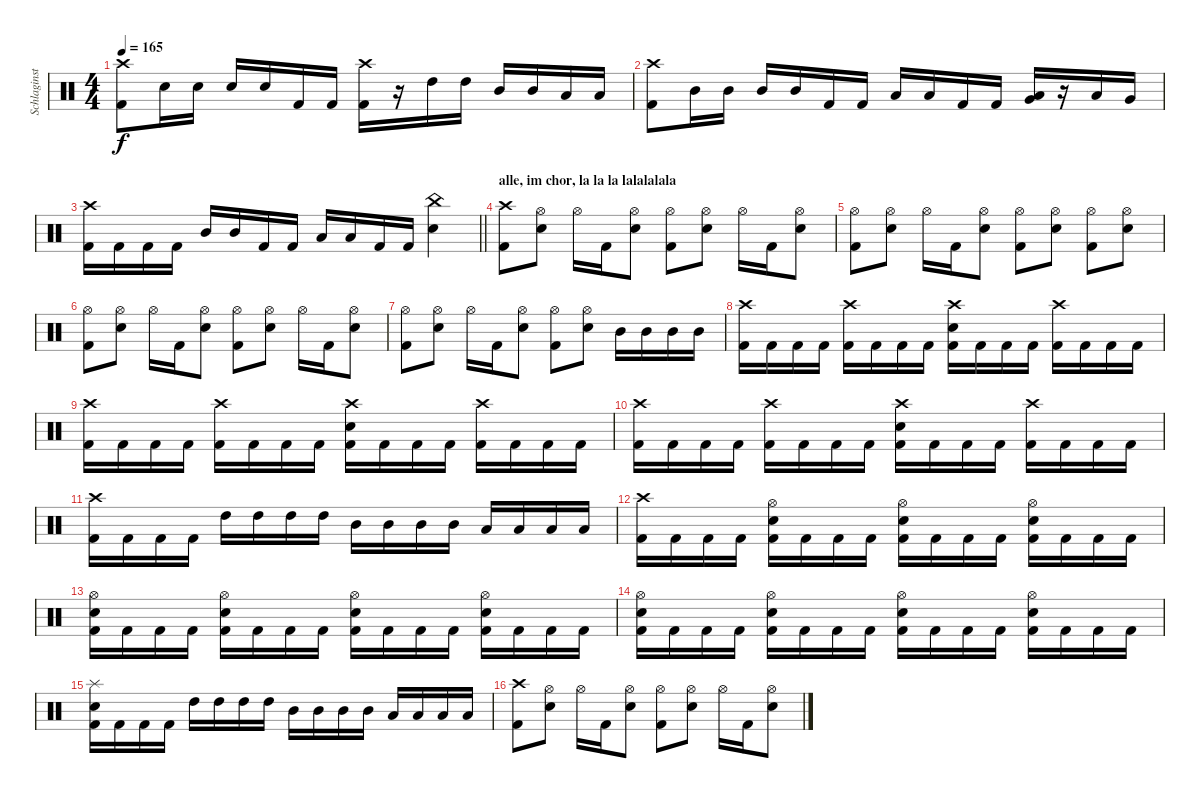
\track ("Schlaginstrumente - Auswahl" "Schlaginst") {instrument percussion}
\staff {score}
\articulation defaults
\ts (4 4)
\tempo 165
\clef neutral
\ks c
("Crash high (hit)" "Kick (hit) 2").8{dy f} "Snare (hit) 2".16 "Snare (hit) 2".16 "Snare (hit) 2".16 "Snare (hit) 2".16 "Kick (hit) 2".16 "Kick (hit) 2".16 ("Crash high (hit)" "Kick (hit) 2").16 r.16 "High Tom (hit)".16 "High Tom (hit)".16 "Mid Tom (hit)".16 "Mid Tom (hit)".16 "Low Tom (hit)".16 "Low Tom (hit)".16 |
("Crash high (hit)" "Kick (hit) 2").8 "Mid Tom (hit)".16 "Mid Tom (hit)".16 "Mid Tom (hit)".16 "Mid Tom (hit)".16 "Kick (hit) 2".16 "Kick (hit) 2".16 "Low Tom (hit)".16 "Low Tom (hit)".16 "Kick (hit) 2".16 "Kick (hit) 2".16 ("Very Low Tom (hit)" "Low Floor Tom (hit)").16 r.16 "Low Floor Tom (hit)".16 "Very Low Tom (hit)".16 |
\barLineRight lightlight
("Crash high (hit)" "Kick (hit) 2").16 "Kick (hit) 2".16 "Kick (hit) 2".16 "Kick (hit) 2".16 "Mid Tom (hit)".16 "Mid Tom (hit)".16 "Kick (hit) 2".16 "Kick (hit) 2".16 "Low Tom (hit)".16 "Low Tom (hit)".16 "Kick (hit) 2".16 "Kick (hit) 2".16 ("China (hit)" "Snare (hit) 2").4 |
\section ("" "alle, im chor, la la la lalalalala")
("Crash high (hit)" "Kick (hit) 2").8 ("Hi-Hat (open)" "Snare (hit) 2").8 "Hi-Hat (open)".16 "Kick (hit) 2".16 ("Hi-Hat (open)" "Snare (hit) 2").8 ("Hi-Hat (open)" "Kick (hit) 2").8 ("Hi-Hat (open)" "Snare (hit) 2").8 "Hi-Hat (open)".16 "Kick (hit) 2".16 ("Hi-Hat (open)" "Snare (hit) 2").8 |
("Hi-Hat (open)" "Kick (hit) 2").8 ("Hi-Hat (open)" "Snare (hit) 2").8 "Hi-Hat (open)".16 "Kick (hit) 2".16 ("Hi-Hat (open)" "Snare (hit) 2").8 ("Hi-Hat (open)" "Kick (hit) 2").8 ("Hi-Hat (open)" "Snare (hit) 2").8 ("Hi-Hat (open)" "Kick (hit) 2").8 ("Hi-Hat (open)" "Snare (hit) 2").8 |
("Hi-Hat (open)" "Kick (hit) 2").8 ("Hi-Hat (open)" "Snare (hit) 2").8 "Hi-Hat (open)".16 "Kick (hit) 2".16 ("Hi-Hat (open)" "Snare (hit) 2").8 ("Hi-Hat (open)" "Kick (hit) 2").8 ("Hi-Hat (open)" "Snare (hit) 2").8 "Hi-Hat (open)".16 "Kick (hit) 2".16 ("Hi-Hat (open)" "Snare (hit) 2").8 |
("Hi-Hat (open)" "Kick (hit) 2").8 ("Hi-Hat (open)" "Snare (hit) 2").8 "Hi-Hat (open)".16 "Kick (hit) 2".16 ("Hi-Hat (open)" "Snare (hit) 2").8 ("Hi-Hat (open)" "Kick (hit) 2").8 ("Hi-Hat (open)" "Snare (hit) 2").8 "Mid Tom (hit)".16 "Mid Tom (hit)".16 "Mid Tom (hit)".16 "Mid Tom (hit)".16 |
("Crash high (hit)" "Kick (hit) 2").16 "Kick (hit) 2".16 "Kick (hit) 2".16 "Kick (hit) 2".16 ("Crash high (hit)" "Kick (hit) 2").16 "Kick (hit) 2".16 "Kick (hit) 2".16 "Kick (hit) 2".16 ("Crash high (hit)" "Snare (hit) 2" "Kick (hit) 2").16 "Kick (hit) 2".16 "Kick (hit) 2".16 "Kick (hit) 2".16 ("Crash high (hit)" "Kick (hit) 2").16 "Kick (hit) 2".16 "Kick (hit) 2".16 "Kick (hit) 2".16 |
("Crash high (hit)" "Kick (hit) 2").16 "Kick (hit) 2".16 "Kick (hit) 2".16 "Kick (hit) 2".16 ("Crash high (hit)" "Kick (hit) 2").16 "Kick (hit) 2".16 "Kick (hit) 2".16 "Kick (hit) 2".16 ("Crash high (hit)" "Snare (hit) 2" "Kick (hit) 2").16 "Kick (hit) 2".16 "Kick (hit) 2".16 "Kick (hit) 2".16 ("Crash high (hit)" "Kick (hit) 2").16 "Kick (hit) 2".16 "Kick (hit) 2".16 "Kick (hit) 2".16 |
("Crash high (hit)" "Kick (hit) 2").16 "Kick (hit) 2".16 "Kick (hit) 2".16 "Kick (hit) 2".16 ("Crash high (hit)" "Kick (hit) 2").16 "Kick (hit) 2".16 "Kick (hit) 2".16 "Kick (hit) 2".16 ("Crash high (hit)" "Snare (hit) 2" "Kick (hit) 2").16 "Kick (hit) 2".16 "Kick (hit) 2".16 "Kick (hit) 2".16 ("Crash high (hit)" "Kick (hit) 2").16 "Kick (hit) 2".16 "Kick (hit) 2".16 "Kick (hit) 2".16 |
("Crash high (hit)" "Kick (hit) 2").16 "Kick (hit) 2".16 "Kick (hit) 2".16 "Kick (hit) 2".16 "High Tom (hit)".16 "High Tom (hit)".16 "High Tom (hit)".16 "High Tom (hit)".16 "Mid Tom (hit)".16 "Mid Tom (hit)".16 "Mid Tom (hit)".16 "Mid Tom (hit)".16 "Low Tom (hit)".16 "Low Tom (hit)".16 "Low Tom (hit)".16 "Low Tom (hit)".16 |
("Crash high (hit)" "Kick (hit) 2").16 "Kick (hit) 2".16 "Kick (hit) 2".16 "Kick (hit) 2".16 ("Hi-Hat (open)" "Snare (hit) 2" "Kick (hit) 2").16 "Kick (hit) 2".16 "Kick (hit) 2".16 "Kick (hit) 2".16 ("Hi-Hat (open)" "Snare (hit) 2" "Kick (hit) 2").16 "Kick (hit) 2".16 "Kick (hit) 2".16 "Kick (hit) 2".16 ("Hi-Hat (open)" "Snare (hit) 2" "Kick (hit) 2").16 "Kick (hit) 2".16 "Kick (hit) 2".16 "Kick (hit) 2".16 |
("Hi-Hat (open)" "Snare (hit) 2" "Kick (hit) 2").16 "Kick (hit) 2".16 "Kick (hit) 2".16 "Kick (hit) 2".16 ("Hi-Hat (open)" "Snare (hit) 2" "Kick (hit) 2").16 "Kick (hit) 2".16 "Kick (hit) 2".16 "Kick (hit) 2".16 ("Hi-Hat (open)" "Snare (hit) 2" "Kick (hit) 2").16 "Kick (hit) 2".16 "Kick (hit) 2".16 "Kick (hit) 2".16 ("Hi-Hat (open)" "Snare (hit) 2" "Kick (hit) 2").16 "Kick (hit) 2".16 "Kick (hit) 2".16 "Kick (hit) 2".16 |
("Hi-Hat (open)" "Snare (hit) 2" "Kick (hit) 2").16 "Kick (hit) 2".16 "Kick (hit) 2".16 "Kick (hit) 2".16 ("Hi-Hat (open)" "Snare (hit) 2" "Kick (hit) 2").16 "Kick (hit) 2".16 "Kick (hit) 2".16 "Kick (hit) 2".16 ("Hi-Hat (open)" "Snare (hit) 2" "Kick (hit) 2").16 "Kick (hit) 2".16 "Kick (hit) 2".16 "Kick (hit) 2".16 ("Hi-Hat (open)" "Snare (hit) 2" "Kick (hit) 2").16 "Kick (hit) 2".16 "Kick (hit) 2".16 "Kick (hit) 2".16 |
("Splash (hit)" "Snare (hit) 2" "Kick (hit) 2").16 "Kick (hit) 2".16 "Kick (hit) 2".16 "Kick (hit) 2".16 "High Tom (hit)".16 "High Tom (hit)".16 "High Tom (hit)".16 "High Tom (hit)".16 "Mid Tom (hit)".16 "Mid Tom (hit)".16 "Mid Tom (hit)".16 "Mid Tom (hit)".16 "Low Tom (hit)".16 "Low Tom (hit)".16 "Low Tom (hit)".16 "Low Tom (hit)".16 |
("Crash high (hit)" "Kick (hit) 2").8 ("Hi-Hat (open)" "Snare (hit) 2").8 "Hi-Hat (open)".16 "Kick (hit) 2".16 ("Hi-Hat (open)" "Snare (hit) 2").8 ("Hi-Hat (open)" "Kick (hit) 2").8 ("Hi-Hat (open)" "Snare (hit) 2").8 "Hi-Hat (open)".16 "Kick (hit) 2".16 ("Hi-Hat (open)" "Snare (hit) 2").8
